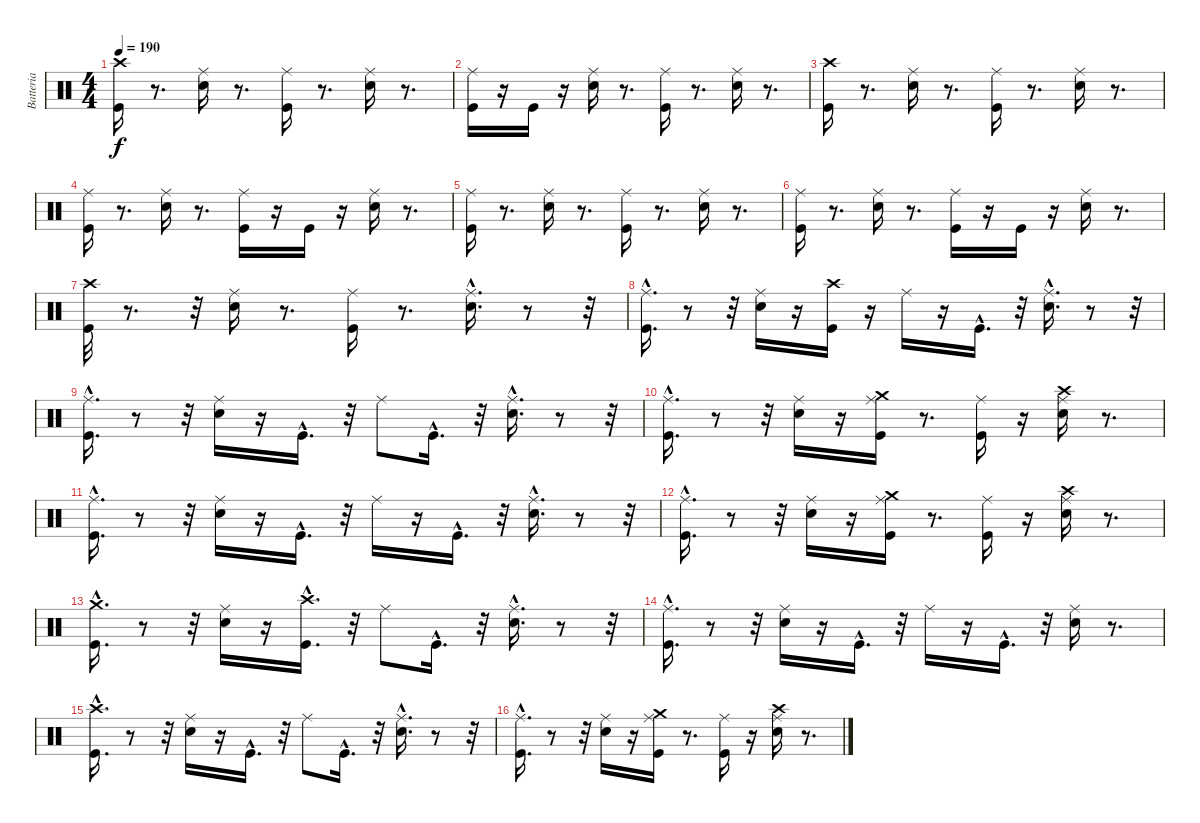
\track ("Batteria" "Batteria") {instrument percussion}
\staff {score}
\articulation defaults
\ts (4 4)
\tempo 190
\clef neutral
\ks c
("Kick (hit)" "Crash high (hit)").16{dy f} r.8{d} ("Ride (middle)" "Snare (hit) 2").16 r.8{d} ("Ride (middle)" "Kick (hit)").16 r.8{d} ("Ride (middle)" "Snare (hit) 2").16 r.8{d} |
("Ride (middle)" "Kick (hit)").16 r.16 "Kick (hit)".16 r.16 ("Snare (hit) 2" "Ride (middle)").16 r.8{d} ("Kick (hit)" "Ride (middle)").16 r.8{d} ("Snare (hit) 2" "Ride (middle)").16 r.8{d} |
("Crash high (hit)" "Kick (hit)").16 r.8{d} ("Ride (middle)" "Snare (hit) 2").16 r.8{d} ("Ride (middle)" "Kick (hit)").16 r.8{d} ("Ride (middle)" "Snare (hit) 2").16 r.8{d} |
("Kick (hit)" "Ride (middle)").16 r.8{d} ("Snare (hit) 2" "Ride (middle)").16 r.8{d} ("Kick (hit)" "Ride (middle)").16 r.16 "Kick (hit)".16 r.16 ("Snare (hit) 2" "Ride (middle)").16 r.8{d} |
("Kick (hit)" "Ride (middle)").16 r.8{d} ("Ride (middle)" "Snare (hit) 2").16 r.8{d} ("Ride (middle)" "Kick (hit)").16 r.8{d} ("Ride (middle)" "Snare (hit) 2").16 r.8{d} |
("Kick (hit)" "Ride (middle)").16 r.8{d} ("Snare (hit) 2" "Ride (middle)").16 r.8{d} ("Kick (hit)" "Ride (middle)").16 r.16 "Kick (hit)".16 r.16 ("Snare (hit) 2" "Ride (middle)").16 r.8{d} |
("Crash high (hit)" "Kick (hit)").32{volume 11} r.8{d} r.32 ("Snare (hit) 2" "Ride (middle)").16 r.8{d} ("Ride (middle)" "Kick (hit)").16 r.8{d} ("Ride (middle)"{hac} "Snare (hit) 2"{hac}).16{d} r.8 r.32 |
("Kick (hit)"{hac} "Ride (middle)"{hac}).16{d} r.8 r.32 ("Snare (hit) 2" "Ride (middle)").16 r.16 ("Crash high (hit)" "Kick (hit)").16 r.16 "Ride (middle)".16 r.16 "Kick (hit)"{hac}.16{d} r.32 ("Snare (hit) 2"{hac} "Ride (middle)"{hac}).16{d} r.8 r.32 |
("Kick (hit)"{hac} "Ride (middle)"{hac}).16{d} r.8 r.32 ("Snare (hit) 2" "Ride (middle)").16 r.16 "Kick (hit)"{hac}.16{d} r.32 "Ride (middle)".8 "Kick (hit)"{hac}.16{d} r.32 ("Snare (hit) 2"{hac} "Ride (middle)"{hac}).16{d} r.8 r.32 |
("Kick (hit)"{hac} "Ride (middle)"{hac}).16{d} r.8 r.32 ("Snare (hit) 2" "Ride (middle)").16 r.16 ("Ride (middle)" "Crash medium (hit)" "Kick (hit)").16 r.8{d} ("Kick (hit)" "Ride (middle)").16 r.16 ("Ride (middle)" "Crash high (hit)" "Snare (hit) 2").16 r.8{d} |
("Kick (hit)"{hac} "Ride (middle)"{hac}).16{d} r.8 r.32 ("Ride (middle)" "Snare (hit) 2").16 r.16 "Kick (hit)"{hac}.16{d} r.32 "Ride (middle)".16 r.16 "Kick (hit)"{hac}.16{d} r.32 ("Snare (hit) 2"{hac} "Ride (middle)"{hac}).16{d} r.8 r.32 |
("Kick (hit)"{hac} "Ride (middle)"{hac}).16{d} r.8 r.32 ("Snare (hit) 2" "Ride (middle)").16 r.16 ("Ride (middle)" "Kick (hit)" "Crash medium (hit)").16 r.8{d} ("Kick (hit)" "Ride (middle)").16 r.16 ("Ride (middle)" "Snare (hit) 2" "Crash high (hit)").16 r.8{d} |
("Crash medium (hit)"{hac} "Kick (hit)"{hac}).16{d} r.8 r.32 ("Snare (hit) 2" "Ride (middle)").16 r.16 ("Kick (hit)"{hac} "Crash high (hit)"{hac}).16{d} r.32 "Ride (middle)".8 "Kick (hit)"{hac}.16{d} r.32 ("Snare (hit) 2"{hac} "Ride (middle)"{hac}).16{d} r.8 r.32 |
("Kick (hit)"{hac} "Ride (middle)"{hac}).16{d} r.8 r.32 ("Snare (hit) 2" "Ride (middle)").16 r.16 "Kick (hit)"{hac}.16{d} r.32 "Ride (middle)".16 r.16 "Kick (hit)"{hac}.16{d} r.32 ("Ride (middle)" "Snare (hit) 2").16 r.8{d} |
("Crash high (hit)"{hac} "Kick (hit)"{hac}).16{d} r.8 r.32 ("Ride (middle)" "Snare (hit) 2").16 r.16 "Kick (hit)"{hac}.16{d} r.32 "Ride (middle)".8 "Kick (hit)"{hac}.16{d} r.32 ("Snare (hit) 2"{hac} "Ride (middle)"{hac}).16{d} r.8 r.32 |
("Kick (hit)"{hac} "Ride (middle)"{hac}).16{d} r.8 r.32 ("Ride (middle)" "Snare (hit) 2").16 r.16 ("Ride (middle)" "Crash medium (hit)" "Kick (hit)").16 r.8{d} ("Kick (hit)" "Ride (middle)").16 r.16 ("Ride (middle)" "Crash high (hit)" "Snare (hit) 2").16 r.8{d}
